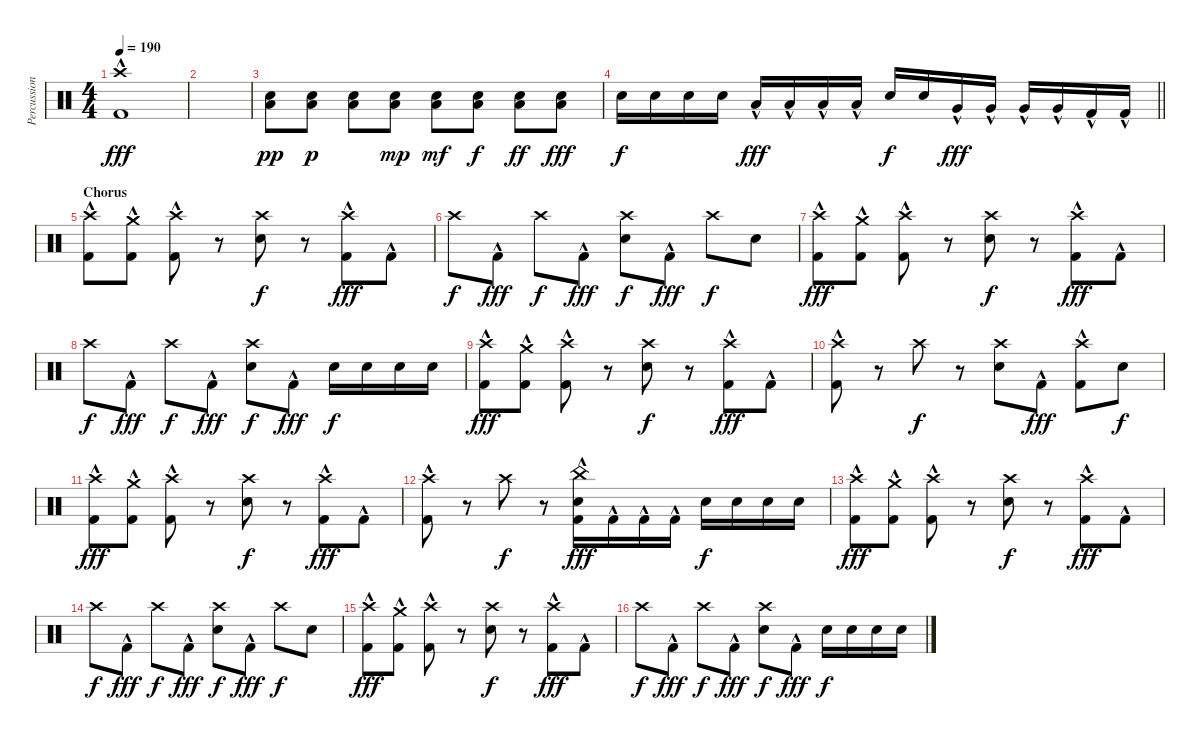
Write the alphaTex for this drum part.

\track ("Percussion" "Percussion") {instrument percussion}
\staff {score}
\articulation defaults
\ts (4 4)
\tempo 190
\clef neutral
\ks c
("Crash high (hit)" "Kick (hit) 2"{hac}).1{dy fff} |
|
("Low Floor Tom (hit)" "Snare (hit) 2").8{dy pp} ("Low Floor Tom (hit)" "Snare (hit) 2").8{dy p} ("Low Floor Tom (hit)" "Snare (hit) 2").8 ("Low Floor Tom (hit)" "Snare (hit) 2").8{dy mp} ("Low Floor Tom (hit)" "Snare (hit) 2").8{dy mf} ("Low Floor Tom (hit)" "Snare (hit) 2").8{dy f} ("Low Floor Tom (hit)" "Snare (hit) 2").8{dy ff} ("Low Floor Tom (hit)" "Snare (hit) 2").8{dy fff} |
\barLineRight lightlight "Snare (hit) 2".16{dy f} "Snare (hit) 2".16 "Snare (hit) 2".16 "Snare (hit) 2".16 "Low Tom (hit)"{hac}.16{dy fff} "Low Tom (hit)"{hac}.16 "Low Tom (hit)"{hac}.16 "Low Tom (hit)"{hac}.16 "Snare (hit) 2".16{dy f} "Snare (hit) 2".16 "Very Low Tom (hit)"{hac}.16{dy fff} "Very Low Tom (hit)"{hac}.16 "Very Low Tom (hit)"{hac}.16 "Very Low Tom (hit)"{hac}.16 "Kick (hit) 2"{hac}.16 "Kick (hit) 2"{hac}.16
|
\section ("" "Chorus")
("Crash high (hit)" "Kick (hit) 2"{hac}).8 ("Crash medium (hit)" "Kick (hit) 2"{hac}).8 ("Crash high (hit)" "Kick (hit) 2"{hac}).8 r.8 ("Crash high (hit)" "Snare (hit) 2").8{dy f} r.8 ("Crash high (hit)" "Kick (hit) 2"{hac}).8{dy fff} "Kick (hit) 2"{hac}.8 |
"Crash high (hit)".8{dy f} "Kick (hit) 2"{hac}.8{dy fff} "Crash high (hit)".8{dy f} "Kick (hit) 2"{hac}.8{dy fff} ("Crash high (hit)" "Snare (hit) 2").8{dy f} "Kick (hit) 2"{hac}.8{dy fff} "Crash high (hit)".8{dy f} "Snare (hit) 2".8 |
("Crash high (hit)" "Kick (hit) 2"{hac}).8{dy fff} ("Crash medium (hit)" "Kick (hit) 2"{hac}).8 ("Crash high (hit)" "Kick (hit) 2"{hac}).8 r.8 ("Crash high (hit)" "Snare (hit) 2").8{dy f} r.8 ("Crash high (hit)" "Kick (hit) 2"{hac}).8{dy fff} "Kick (hit) 2"{hac}.8 |
"Crash high (hit)".8{dy f} "Kick (hit) 2"{hac}.8{dy fff} "Crash high (hit)".8{dy f} "Kick (hit) 2"{hac}.8{dy fff} ("Crash high (hit)" "Snare (hit) 2").8{dy f} "Kick (hit) 2"{hac}.8{dy fff} "Snare (hit) 2".16{dy f} "Snare (hit) 2".16 "Snare (hit) 2".16 "Snare (hit) 2".16 |
("Crash high (hit)" "Kick (hit) 2"{hac}).8{dy fff} ("Crash medium (hit)" "Kick (hit) 2"{hac}).8 ("Crash high (hit)" "Kick (hit) 2"{hac}).8 r.8 ("Crash high (hit)" "Snare (hit) 2").8{dy f} r.8 ("Crash high (hit)" "Kick (hit) 2"{hac}).8{dy fff} "Kick (hit) 2"{hac}.8 |
("Crash high (hit)" "Kick (hit) 2"{hac}).8 r.8 "Crash high (hit)".8{dy f} r.8 ("Crash high (hit)" "Snare (hit) 2").8 "Kick (hit) 2"{hac}.8{dy fff} ("Crash high (hit)" "Kick (hit) 2"{hac}).8 "Snare (hit) 2".8{dy f} |
("Crash high (hit)" "Kick (hit) 2"{hac}).8{dy fff} ("Crash medium (hit)" "Kick (hit) 2"{hac}).8 ("Crash high (hit)" "Kick (hit) 2"{hac}).8 r.8 ("Crash high (hit)" "Snare (hit) 2").8{dy f} r.8 ("Crash high (hit)" "Kick (hit) 2"{hac}).8{dy fff} "Kick (hit) 2"{hac}.8 |
("Crash high (hit)" "Kick (hit) 2"{hac}).8 r.8 "Crash high (hit)".8{dy f} r.8 ("China (hit)" "Snare (hit) 2" "Kick (hit) 2"{hac}).16{dy fff} "Kick (hit) 2"{hac}.16 "Kick (hit) 2"{hac}.16 "Kick (hit) 2"{hac}.16 "Snare (hit) 2".16{dy f} "Snare (hit) 2".16 "Snare (hit) 2".16 "Snare (hit) 2".16 |
("Crash high (hit)" "Kick (hit) 2"{hac}).8{dy fff} ("Crash medium (hit)" "Kick (hit) 2"{hac}).8 ("Crash high (hit)" "Kick (hit) 2"{hac}).8 r.8 ("Crash high (hit)" "Snare (hit) 2").8{dy f} r.8 ("Crash high (hit)" "Kick (hit) 2"{hac}).8{dy fff} "Kick (hit) 2"{hac}.8 |
"Crash high (hit)".8{dy f} "Kick (hit) 2"{hac}.8{dy fff} "Crash high (hit)".8{dy f} "Kick (hit) 2"{hac}.8{dy fff} ("Crash high (hit)" "Snare (hit) 2").8{dy f} "Kick (hit) 2"{hac}.8{dy fff} "Crash high (hit)".8{dy f} "Snare (hit) 2".8 |
("Crash high (hit)" "Kick (hit) 2"{hac}).8{dy fff} ("Crash medium (hit)" "Kick (hit) 2"{hac}).8 ("Crash high (hit)" "Kick (hit) 2"{hac}).8 r.8 ("Crash high (hit)" "Snare (hit) 2").8{dy f} r.8 ("Crash high (hit)" "Kick (hit) 2"{hac}).8{dy fff} "Kick (hit) 2"{hac}.8 |
"Crash high (hit)".8{dy f} "Kick (hit) 2"{hac}.8{dy fff} "Crash high (hit)".8{dy f} "Kick (hit) 2"{hac}.8{dy fff} ("Crash high (hit)" "Snare (hit) 2").8{dy f} "Kick (hit) 2"{hac}.8{dy fff} "Snare (hit) 2".16{dy f} "Snare (hit) 2".16 "Snare (hit) 2".16 "Snare (hit) 2".16
